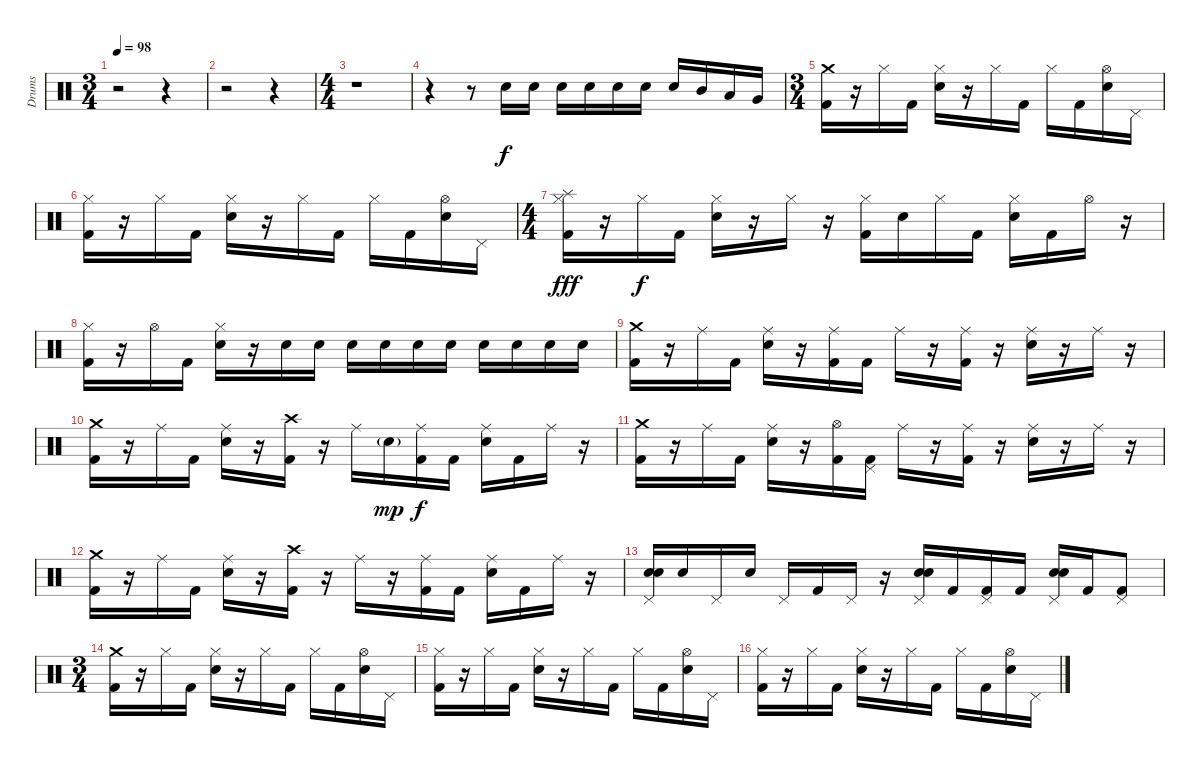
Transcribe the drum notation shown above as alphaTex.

\track ("Drums" "Drums") {instrument percussion}
\staff {score}
\articulation defaults
\ts (3 4)
\tempo 98
\clef neutral
\ks c
r.2{dy f} r.4 |
r.2 r.4 |
\ts (4 4)
r.1 |
r.4 r.8 "Snare (hit) 2".16 "Snare (hit) 2".16 "Snare (hit) 2".16 "Snare (hit) 2".16 "Snare (hit) 2".16 "Snare (hit) 2".16 "Snare (hit) 2".16 "Mid Tom (hit)".16 "Low Tom (hit)".16 "Very Low Tom (hit)".16 |
\ts (3 4)
("Crash medium (hit)" "Kick (hit) 2").16 r.16 "Hi-Hat (closed)".16 "Kick (hit) 2".16 ("Hi-Hat (closed)" "Snare (hit) 2").16 r.16 "Hi-Hat (closed)".16 "Kick (hit) 2".16 "Hi-Hat (closed)".16 "Kick (hit) 2".16 ("Hi-Hat (open)" "Snare (hit) 2").16 "Pedal Hi-Hat (hit)".16 |
("Hi-Hat (closed)" "Kick (hit) 2").16 r.16 "Hi-Hat (closed)".16 "Kick (hit) 2".16 ("Hi-Hat (closed)" "Snare (hit) 2").16 r.16 "Hi-Hat (closed)".16 "Kick (hit) 2".16 "Hi-Hat (closed)".16 "Kick (hit) 2".16 ("Hi-Hat (open)" "Snare (hit) 2").16 "Pedal Hi-Hat (hit)".16 |
\ts (4 4)
("Hi-Hat (closed)" "Splash (hit)" "Kick (hit) 2").16{dy fff} r.16 "Hi-Hat (closed)".16{dy f} "Kick (hit) 2".16 ("Hi-Hat (closed)" "Snare (hit) 2").16 r.16 "Hi-Hat (closed)".16 r.16 ("Hi-Hat (closed)" "Kick (hit) 2").16 "Snare (hit) 2".16 "Hi-Hat (closed)".16 "Kick (hit) 2".16 ("Hi-Hat (closed)" "Snare (hit) 2").16 "Kick (hit) 2".16 "Hi-Hat (open)".16 r.16 |
("Hi-Hat (closed)" "Kick (hit) 2").16 r.16 "Hi-Hat (open)".16 "Kick (hit) 2".16 ("Hi-Hat (closed)" "Snare (hit) 2").16 r.16 "Snare (hit) 2".16 "Snare (hit) 2".16 "Snare (hit) 2".16 "Snare (hit) 2".16 "Snare (hit) 2".16 "Snare (hit) 2".16 "Snare (hit) 2".16 "Snare (hit) 2".16 "Snare (hit) 2".16 "Snare (hit) 2".16 |
("Crash medium (hit)" "Kick (hit) 2").16 r.16 "Ride (middle)".16 "Kick (hit) 2".16 ("Ride (middle)" "Snare (hit) 2").16 r.16 ("Ride (middle)" "Kick (hit) 2").16 "Kick (hit) 2".16 "Ride (middle)".16 r.16 ("Ride (middle)" "Kick (hit) 2").16 r.16 ("Ride (middle)" "Snare (hit) 2").16 r.16 "Ride (middle)".16 r.16 |
("Crash medium (hit)" "Kick (hit) 2").16 r.16 "Ride (middle)".16 "Kick (hit) 2".16 ("Ride (middle)" "Snare (hit) 2").16 r.16 ("Crash high (hit)" "Kick (hit) 2").16 r.16 "Ride (middle)".16 "Snare (hit) 2"{g}.16{dy mp} ("Ride (middle)" "Kick (hit) 2").16{dy f} "Kick (hit) 2".16 ("Ride (middle)" "Snare (hit) 2").16 "Kick (hit) 2".16 "Ride (middle)".16 r.16 |
("Crash medium (hit)" "Kick (hit) 2").16 r.16 "Ride (middle)".16 "Kick (hit) 2".16 ("Ride (middle)" "Snare (hit) 2").16 r.16 ("Hi-Hat (open)" "Kick (hit) 2").16 ("Pedal Hi-Hat (hit)" "Kick (hit) 2").16 "Ride (middle)".16 r.16 ("Ride (middle)" "Kick (hit) 2").16 r.16 ("Ride (middle)" "Snare (hit) 2").16 r.16 "Ride (middle)".16 r.16 |
("Crash medium (hit)" "Kick (hit) 2").16 r.16 "Ride (middle)".16 "Kick (hit) 2".16 ("Ride (middle)" "Snare (hit) 2").16 r.16 ("Crash high (hit)" "Kick (hit) 2").16 r.16 "Ride (middle)".16 r.16 ("Ride (middle)" "Kick (hit) 2").16 "Kick (hit) 2".16 ("Ride (middle)" "Snare (hit) 2").16 "Kick (hit) 2".16 "Ride (middle)".16 r.16 |
("Pedal Hi-Hat (hit)" "Snare (hit) 2" "Snare (hit) 2").16 "Snare (hit) 2".16 "Pedal Hi-Hat (hit)".16 "Snare (hit) 2".16 "Pedal Hi-Hat (hit)".16 "Kick (hit) 2".16 "Pedal Hi-Hat (hit)".16 r.16 ("Pedal Hi-Hat (hit)" "Snare (hit) 2" "Snare (hit) 2").16 "Kick (hit) 2".16 ("Pedal Hi-Hat (hit)" "Kick (hit) 2").16 "Kick (hit) 2".16 ("Pedal Hi-Hat (hit)" "Snare (hit) 2" "Snare (hit) 2").16 "Kick (hit) 2".16 ("Pedal Hi-Hat (hit)" "Kick (hit) 2").8 |
\ts (3 4)
("Crash medium (hit)" "Kick (hit) 2").16 r.16 "Hi-Hat (closed)".16 "Kick (hit) 2".16 ("Hi-Hat (closed)" "Snare (hit) 2").16 r.16 "Hi-Hat (closed)".16 "Kick (hit) 2".16 "Hi-Hat (closed)".16 "Kick (hit) 2".16 ("Hi-Hat (open)" "Snare (hit) 2").16 "Pedal Hi-Hat (hit)".16 |
("Hi-Hat (closed)" "Kick (hit) 2").16 r.16 "Hi-Hat (closed)".16 "Kick (hit) 2".16 ("Hi-Hat (closed)" "Snare (hit) 2").16 r.16 "Hi-Hat (closed)".16 "Kick (hit) 2".16 "Hi-Hat (closed)".16 "Kick (hit) 2".16 ("Hi-Hat (open)" "Snare (hit) 2").16 "Pedal Hi-Hat (hit)".16 |
("Hi-Hat (closed)" "Kick (hit) 2").16 r.16 "Hi-Hat (closed)".16 "Kick (hit) 2".16 ("Hi-Hat (closed)" "Snare (hit) 2").16 r.16 "Hi-Hat (closed)".16 "Kick (hit) 2".16 "Hi-Hat (closed)".16 "Kick (hit) 2".16 ("Hi-Hat (open)" "Snare (hit) 2").16 "Pedal Hi-Hat (hit)".16
